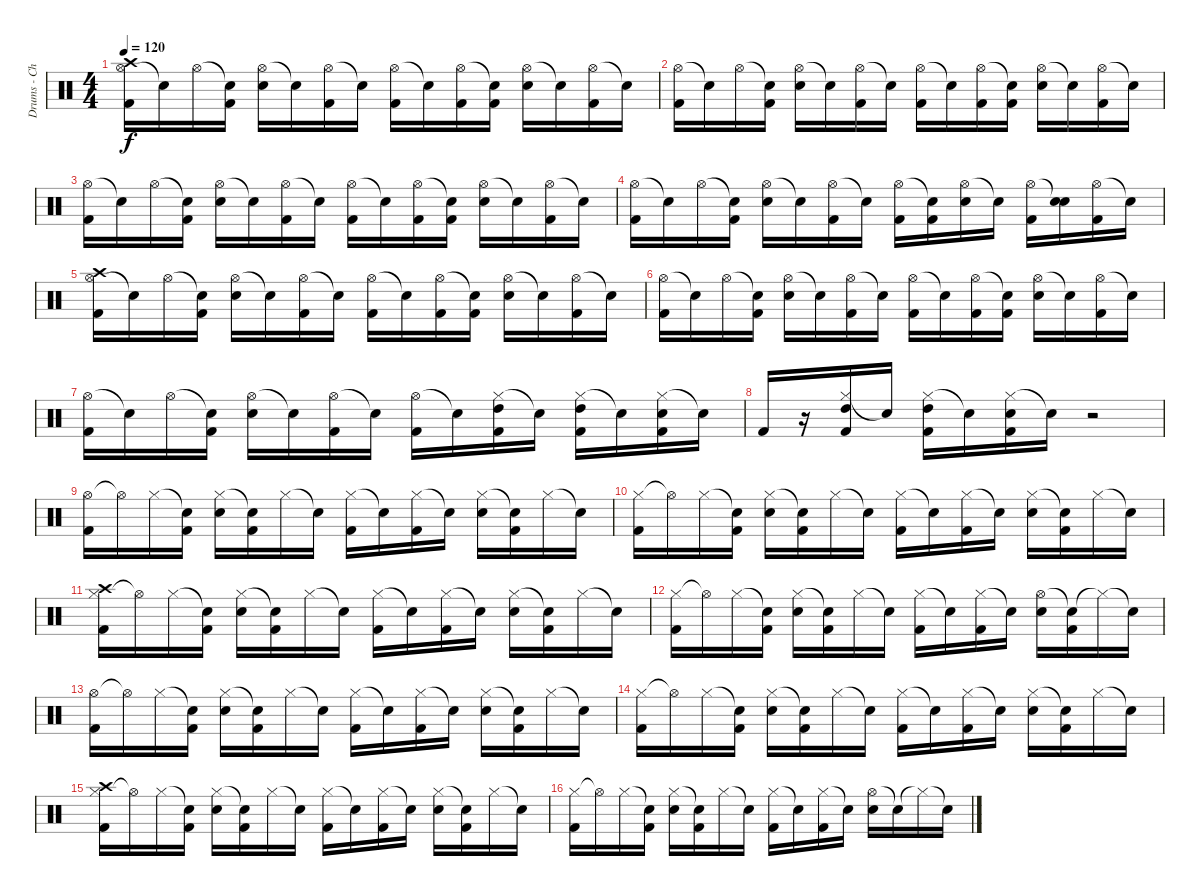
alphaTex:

\track ("Drums - Chad" "Drums - Ch") {instrument percussion}
\staff {score}
\articulation defaults
\ts (4 4)
\tempo 120
\clef neutral
\ks c
("Hi-Hat (open)" "Kick (hit) 2" "Crash high (hit)").16{dy f volume 14} "Snare (hit)"{t}.16 "Hi-Hat (open)".16 ("Snare (hit)"{t} "Kick (hit) 2").16 ("Hi-Hat (open)" "Electric Snare (hit)").16 "Snare (hit)"{t}.16 ("Hi-Hat (open)" "Kick (hit) 2").16 "Snare (hit)"{t}.16 ("Hi-Hat (open)" "Kick (hit) 2").16 "Snare (hit)"{t}.16 ("Hi-Hat (open)" "Kick (hit) 2").16 ("Snare (hit)"{t} "Kick (hit) 2").16 ("Hi-Hat (open)" "Electric Snare (hit)").16 "Snare (hit)"{t}.16 ("Hi-Hat (open)" "Kick (hit) 2").16 "Snare (hit)"{t}.16 |
("Hi-Hat (open)" "Kick (hit) 2").16 "Snare (hit)"{t}.16 "Hi-Hat (open)".16 ("Snare (hit)"{t} "Kick (hit) 2").16 ("Hi-Hat (open)" "Electric Snare (hit)").16 "Snare (hit)"{t}.16 ("Hi-Hat (open)" "Kick (hit) 2").16 "Snare (hit)"{t}.16 ("Hi-Hat (open)" "Kick (hit) 2").16 "Snare (hit)"{t}.16 ("Hi-Hat (open)" "Kick (hit) 2").16 ("Snare (hit)"{t} "Kick (hit) 2").16 ("Hi-Hat (open)" "Electric Snare (hit)").16 "Snare (hit)"{t}.16 ("Hi-Hat (open)" "Kick (hit) 2").16 "Snare (hit)"{t}.16 |
("Hi-Hat (open)" "Kick (hit) 2").16 "Snare (hit)"{t}.16 "Hi-Hat (open)".16 ("Snare (hit)"{t} "Kick (hit) 2").16 ("Hi-Hat (open)" "Electric Snare (hit)").16 "Snare (hit)"{t}.16 ("Hi-Hat (open)" "Kick (hit) 2").16 "Snare (hit)"{t}.16 ("Hi-Hat (open)" "Kick (hit) 2").16 "Snare (hit)"{t}.16 ("Hi-Hat (open)" "Kick (hit) 2").16 ("Snare (hit)"{t} "Kick (hit) 2").16 ("Hi-Hat (open)" "Electric Snare (hit)").16 "Snare (hit)"{t}.16 ("Hi-Hat (open)" "Kick (hit) 2").16 "Snare (hit)"{t}.16 |
("Hi-Hat (open)" "Kick (hit) 2").16 "Snare (hit)"{t}.16 "Hi-Hat (open)".16 ("Snare (hit)"{t} "Kick (hit) 2").16 ("Hi-Hat (open)" "Electric Snare (hit)").16 "Snare (hit)"{t}.16 ("Hi-Hat (open)" "Kick (hit) 2").16 "Snare (hit)"{t}.16 ("Hi-Hat (open)" "Kick (hit) 2").16 ("Snare (hit)"{t} "Kick (hit) 2").16 ("Hi-Hat (open)" "Electric Snare (hit)").16 "Snare (hit)"{t}.16 ("Hi-Hat (open)" "Kick (hit) 2").16 ("Snare (hit)"{t} "Electric Snare (hit)").16 ("Hi-Hat (open)" "Kick (hit) 2").16 "Snare (hit)"{t}.16 |
("Hi-Hat (open)" "Kick (hit) 2" "Crash high (hit)").16{volume 14} "Snare (hit)"{t}.16 "Hi-Hat (open)".16 ("Snare (hit)"{t} "Kick (hit) 2").16 ("Hi-Hat (open)" "Electric Snare (hit)").16 "Snare (hit)"{t}.16 ("Hi-Hat (open)" "Kick (hit) 2").16 "Snare (hit)"{t}.16 ("Hi-Hat (open)" "Kick (hit) 2").16 "Snare (hit)"{t}.16 ("Hi-Hat (open)" "Kick (hit) 2").16 ("Snare (hit)"{t} "Kick (hit) 2").16 ("Hi-Hat (open)" "Electric Snare (hit)").16 "Snare (hit)"{t}.16 ("Hi-Hat (open)" "Kick (hit) 2").16 "Snare (hit)"{t}.16 |
("Hi-Hat (open)" "Kick (hit) 2").16 "Snare (hit)"{t}.16 "Hi-Hat (open)".16 ("Snare (hit)"{t} "Kick (hit) 2").16 ("Hi-Hat (open)" "Electric Snare (hit)").16 "Snare (hit)"{t}.16 ("Hi-Hat (open)" "Kick (hit) 2").16 "Snare (hit)"{t}.16 ("Hi-Hat (open)" "Kick (hit) 2").16 "Snare (hit)"{t}.16 ("Hi-Hat (open)" "Kick (hit) 2").16 ("Snare (hit)"{t} "Kick (hit) 2").16 ("Hi-Hat (open)" "Electric Snare (hit)").16 "Snare (hit)"{t}.16 ("Hi-Hat (open)" "Kick (hit) 2").16 "Snare (hit)"{t}.16 |
("Hi-Hat (open)" "Kick (hit) 2").16 "Snare (hit)"{t}.16 "Hi-Hat (open)".16 ("Snare (hit)"{t} "Kick (hit) 2").16 ("Hi-Hat (open)" "Electric Snare (hit)").16 "Snare (hit)"{t}.16 ("Hi-Hat (open)" "Kick (hit) 2").16 "Snare (hit)"{t}.16 ("Hi-Hat (open)" "Kick (hit) 2").16 "Snare (hit)"{t}.16 ("Hi-Hat (closed)" "Kick (hit) 2" "High Tom (hit)").16 "Snare (hit)"{t}.16 ("Hi-Hat (closed)" "Kick (hit) 2" "High Tom (hit)").16 "Snare (hit)"{t}.16 ("Hi-Hat (closed)" "Kick (hit) 2" "Electric Snare (hit)").16 "Snare (hit)"{t}.16 |
"Kick (hit) 2".16 r.16 ("Hi-Hat (closed)" "Kick (hit) 2" "High Tom (hit)").16 "Snare (hit)"{t}.16 ("Hi-Hat (closed)" "Kick (hit) 2" "High Tom (hit)").16 "Snare (hit)"{t}.16 ("Hi-Hat (closed)" "Kick (hit) 2" "Electric Snare (hit)").16 "Snare (hit)"{t}.16 r.2 |
("Hi-Hat (open)" "Kick (hit) 2").16 "Hi-Hat (open)"{t}.16 "Hi-Hat (closed)".16 ("Snare (hit)"{t} "Kick (hit) 2").16 ("Hi-Hat (closed)" "Electric Snare (hit)").16 ("Snare (hit)"{t} "Kick (hit) 2").16 "Hi-Hat (closed)".16 "Snare (hit)"{t}.16 ("Hi-Hat (closed)" "Kick (hit) 2").16 "Snare (hit)"{t}.16 ("Hi-Hat (closed)" "Kick (hit) 2").16 "Snare (hit)"{t}.16 ("Hi-Hat (closed)" "Electric Snare (hit)").16 ("Snare (hit)"{t} "Kick (hit) 2").16 "Hi-Hat (closed)".16 "Snare (hit)"{t}.16 |
("Hi-Hat (closed)" "Kick (hit) 2").16 "Hi-Hat (open)"{t}.16 "Hi-Hat (closed)".16 ("Snare (hit)"{t} "Kick (hit) 2").16 ("Hi-Hat (closed)" "Electric Snare (hit)").16 ("Snare (hit)"{t} "Kick (hit) 2").16 "Hi-Hat (closed)".16 "Snare (hit)"{t}.16 ("Hi-Hat (closed)" "Kick (hit) 2").16 "Snare (hit)"{t}.16 ("Hi-Hat (closed)" "Kick (hit) 2").16 "Snare (hit)"{t}.16 ("Hi-Hat (closed)" "Electric Snare (hit)").16 ("Snare (hit)"{t} "Kick (hit) 2").16 "Hi-Hat (closed)".16 "Snare (hit)"{t}.16 |
("Hi-Hat (closed)" "Kick (hit) 2" "Crash high (hit)").16 "Hi-Hat (open)"{t}.16 "Hi-Hat (closed)".16 ("Snare (hit)"{t} "Kick (hit) 2").16 ("Hi-Hat (closed)" "Electric Snare (hit)").16 ("Snare (hit)"{t} "Kick (hit) 2").16 "Hi-Hat (closed)".16 "Snare (hit)"{t}.16 ("Hi-Hat (closed)" "Kick (hit) 2").16 "Snare (hit)"{t}.16 ("Hi-Hat (closed)" "Kick (hit) 2").16 "Snare (hit)"{t}.16 ("Hi-Hat (closed)" "Electric Snare (hit)").16 ("Snare (hit)"{t} "Kick (hit) 2").16 "Hi-Hat (closed)".16 "Snare (hit)"{t}.16 |
("Hi-Hat (closed)" "Kick (hit) 2").16 "Hi-Hat (open)"{t}.16 "Hi-Hat (closed)".16 ("Snare (hit)"{t} "Kick (hit) 2").16 ("Hi-Hat (closed)" "Electric Snare (hit)").16 ("Snare (hit)"{t} "Kick (hit) 2").16 "Hi-Hat (closed)".16 "Snare (hit)"{t}.16 ("Hi-Hat (closed)" "Kick (hit) 2").16 "Snare (hit)"{t}.16 ("Hi-Hat (closed)" "Kick (hit) 2").16 "Snare (hit)"{t}.16 ("Hi-Hat (open)" "Electric Snare (hit)").16 ("Snare (hit)"{t} "Kick (hit) 2").16 "Hi-Hat (closed)"{t}.16 "Snare (hit)"{t}.16 |
("Hi-Hat (open)" "Kick (hit) 2").16 "Hi-Hat (open)"{t}.16 "Hi-Hat (closed)".16 ("Snare (hit)"{t} "Kick (hit) 2").16 ("Hi-Hat (closed)" "Electric Snare (hit)").16 ("Snare (hit)"{t} "Kick (hit) 2").16 "Hi-Hat (closed)".16 "Snare (hit)"{t}.16 ("Hi-Hat (closed)" "Kick (hit) 2").16 "Snare (hit)"{t}.16 ("Hi-Hat (closed)" "Kick (hit) 2").16 "Snare (hit)"{t}.16 ("Hi-Hat (closed)" "Electric Snare (hit)").16 ("Snare (hit)"{t} "Kick (hit) 2").16 "Hi-Hat (closed)".16 "Snare (hit)"{t}.16 |
("Hi-Hat (closed)" "Kick (hit) 2").16 "Hi-Hat (open)"{t}.16 "Hi-Hat (closed)".16 ("Snare (hit)"{t} "Kick (hit) 2").16 ("Hi-Hat (closed)" "Electric Snare (hit)").16 ("Snare (hit)"{t} "Kick (hit) 2").16 "Hi-Hat (closed)".16 "Snare (hit)"{t}.16 ("Hi-Hat (closed)" "Kick (hit) 2").16 "Snare (hit)"{t}.16 ("Hi-Hat (closed)" "Kick (hit) 2").16 "Snare (hit)"{t}.16 ("Hi-Hat (closed)" "Electric Snare (hit)").16 ("Snare (hit)"{t} "Kick (hit) 2").16 "Hi-Hat (closed)".16 "Snare (hit)"{t}.16 |
("Hi-Hat (closed)" "Kick (hit) 2" "Crash high (hit)").16 "Hi-Hat (open)"{t}.16 "Hi-Hat (closed)".16 ("Snare (hit)"{t} "Kick (hit) 2").16 ("Hi-Hat (closed)" "Electric Snare (hit)").16 ("Snare (hit)"{t} "Kick (hit) 2").16 "Hi-Hat (closed)".16 "Snare (hit)"{t}.16 ("Hi-Hat (closed)" "Kick (hit) 2").16 "Snare (hit)"{t}.16 ("Hi-Hat (closed)" "Kick (hit) 2").16 "Snare (hit)"{t}.16 ("Hi-Hat (closed)" "Electric Snare (hit)").16 ("Snare (hit)"{t} "Kick (hit) 2").16 "Hi-Hat (closed)".16 "Snare (hit)"{t}.16 |
("Hi-Hat (closed)" "Kick (hit) 2").16 "Hi-Hat (open)"{t}.16 "Hi-Hat (closed)".16 ("Snare (hit)"{t} "Kick (hit) 2").16 ("Hi-Hat (closed)" "Electric Snare (hit)").16 ("Snare (hit)"{t} "Kick (hit) 2").16 "Hi-Hat (closed)".16 "Snare (hit)"{t}.16 ("Hi-Hat (closed)" "Kick (hit) 2").16 "Snare (hit)"{t}.16 ("Hi-Hat (closed)" "Kick (hit) 2").16 "Snare (hit)"{t}.16 ("Hi-Hat (open)" "Electric Snare (hit)").16 "Snare (hit)"{t}.16 "Hi-Hat (closed)"{t}.16 "Snare (hit)"{t}.16
